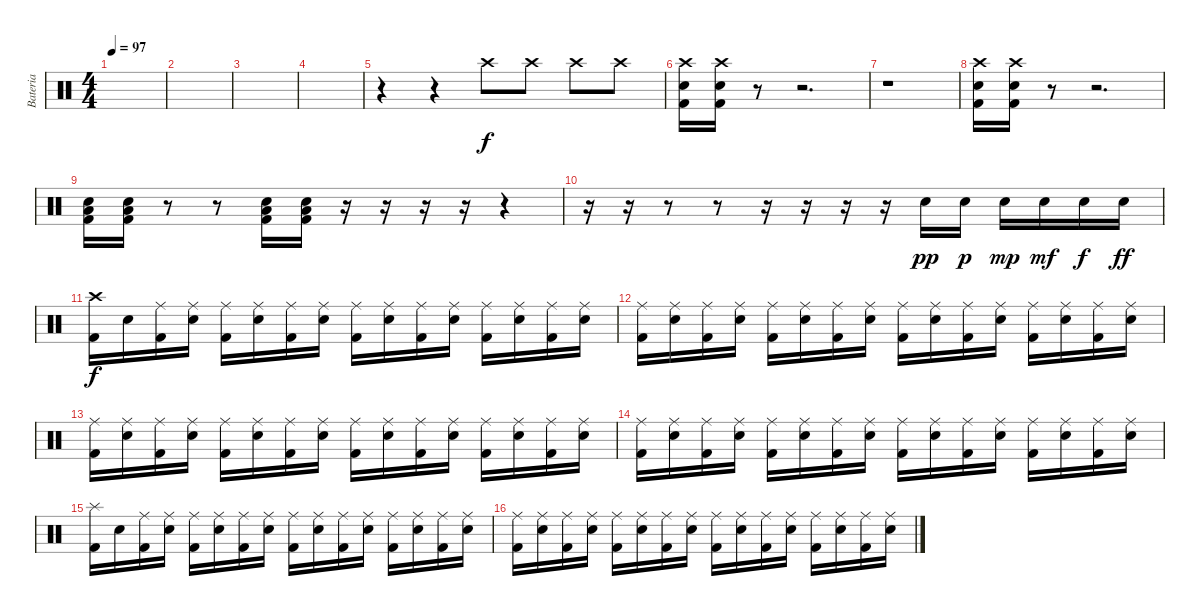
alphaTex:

\track ("Bateria" "Bateria") {instrument percussion}
\staff {score}
\articulation defaults
\ts (4 4)
\tempo 97
\clef neutral
\ks c
|
|
|
|
r.4 r.4 "Crash high (hit)".8 "Crash high (hit)".8 "Crash high (hit)".8 "Crash high (hit)".8 |
("Crash high (hit)" "Electric Snare (hit)" "Kick (hit) 2").16 ("Crash high (hit)" "Electric Snare (hit)" "Kick (hit) 2").16 r.8 r.2{d} |
r.1 |
("Crash high (hit)" "Electric Snare (hit)" "Kick (hit) 2").16 ("Crash high (hit)" "Electric Snare (hit)" "Kick (hit) 2").16 r.8 r.2{d} |
("Low Floor Tom (hit)" "Electric Snare (hit)" "Kick (hit) 2").16 ("Low Floor Tom (hit)" "Electric Snare (hit)" "Kick (hit) 2").16 r.8 r.8 ("Low Floor Tom (hit)" "Electric Snare (hit)" "Kick (hit) 2").16 ("Low Floor Tom (hit)" "Electric Snare (hit)" "Kick (hit) 2").16 r.16 r.16 r.16 r.16 r.4 |
r.16 r.16 r.8 r.8 r.16 r.16 r.16 r.16 "Electric Snare (hit)".16{dy pp} "Electric Snare (hit)".16{dy p} "Electric Snare (hit)".16{dy mp} "Electric Snare (hit)".16{dy mf} "Electric Snare (hit)".16{dy f} "Electric Snare (hit)".16{dy ff} |
("Crash high (hit)" "Kick (hit) 2").16{dy f} "Electric Snare (hit)".16 ("Ride (middle)" "Kick (hit) 2").16 ("Ride (middle)" "Electric Snare (hit)").16 ("Ride (middle)" "Kick (hit) 2").16 ("Ride (middle)" "Electric Snare (hit)").16 ("Ride (middle)" "Kick (hit) 2").16 ("Ride (middle)" "Electric Snare (hit)").16 ("Ride (middle)" "Kick (hit) 2").16 ("Ride (middle)" "Electric Snare (hit)").16 ("Ride (middle)" "Kick (hit) 2").16 ("Ride (middle)" "Electric Snare (hit)").16 ("Ride (middle)" "Kick (hit) 2").16 ("Ride (middle)" "Electric Snare (hit)").16 ("Ride (middle)" "Kick (hit) 2").16 ("Ride (middle)" "Electric Snare (hit)").16 |
("Ride (middle)" "Kick (hit) 2").16 ("Ride (middle)" "Electric Snare (hit)").16 ("Ride (middle)" "Kick (hit) 2").16 ("Ride (middle)" "Electric Snare (hit)").16 ("Ride (middle)" "Kick (hit) 2").16 ("Ride (middle)" "Electric Snare (hit)").16 ("Ride (middle)" "Kick (hit) 2").16 ("Ride (middle)" "Electric Snare (hit)").16 ("Ride (middle)" "Kick (hit) 2").16 ("Ride (middle)" "Electric Snare (hit)").16 ("Ride (middle)" "Kick (hit) 2").16 ("Ride (middle)" "Electric Snare (hit)").16 ("Ride (middle)" "Kick (hit) 2").16 ("Ride (middle)" "Electric Snare (hit)").16 ("Ride (middle)" "Kick (hit) 2").16 ("Ride (middle)" "Electric Snare (hit)").16 |
("Ride (middle)" "Kick (hit) 2").16 ("Ride (middle)" "Electric Snare (hit)").16 ("Ride (middle)" "Kick (hit) 2").16 ("Ride (middle)" "Electric Snare (hit)").16 ("Ride (middle)" "Kick (hit) 2").16 ("Ride (middle)" "Electric Snare (hit)").16 ("Ride (middle)" "Kick (hit) 2").16 ("Ride (middle)" "Electric Snare (hit)").16 ("Ride (middle)" "Kick (hit) 2").16 ("Ride (middle)" "Electric Snare (hit)").16 ("Ride (middle)" "Kick (hit) 2").16 ("Ride (middle)" "Electric Snare (hit)").16 ("Ride (middle)" "Kick (hit) 2").16 ("Ride (middle)" "Electric Snare (hit)").16 ("Ride (middle)" "Kick (hit) 2").16 ("Ride (middle)" "Electric Snare (hit)").16 |
("Ride (middle)" "Kick (hit) 2").16 ("Ride (middle)" "Electric Snare (hit)").16 ("Ride (middle)" "Kick (hit) 2").16 ("Ride (middle)" "Electric Snare (hit)").16 ("Ride (middle)" "Kick (hit) 2").16 ("Ride (middle)" "Electric Snare (hit)").16 ("Ride (middle)" "Kick (hit) 2").16 ("Ride (middle)" "Electric Snare (hit)").16 ("Ride (middle)" "Kick (hit) 2").16 ("Ride (middle)" "Electric Snare (hit)").16 ("Ride (middle)" "Kick (hit) 2").16 ("Ride (middle)" "Electric Snare (hit)").16 ("Ride (middle)" "Kick (hit) 2").16 ("Ride (middle)" "Electric Snare (hit)").16 ("Ride (middle)" "Kick (hit) 2").16 ("Ride (middle)" "Electric Snare (hit)").16 |
("Splash (hit)" "Kick (hit) 2").16 "Electric Snare (hit)".16 ("Ride (middle)" "Kick (hit) 2").16 ("Ride (middle)" "Electric Snare (hit)").16 ("Ride (middle)" "Kick (hit) 2").16 ("Ride (middle)" "Electric Snare (hit)").16 ("Ride (middle)" "Kick (hit) 2").16 ("Ride (middle)" "Electric Snare (hit)").16 ("Ride (middle)" "Kick (hit) 2").16 ("Ride (middle)" "Electric Snare (hit)").16 ("Ride (middle)" "Kick (hit) 2").16 ("Ride (middle)" "Electric Snare (hit)").16 ("Ride (middle)" "Kick (hit) 2").16 ("Ride (middle)" "Electric Snare (hit)").16 ("Ride (middle)" "Kick (hit) 2").16 ("Ride (middle)" "Electric Snare (hit)").16 |
("Ride (middle)" "Kick (hit) 2").16 ("Ride (middle)" "Electric Snare (hit)").16 ("Ride (middle)" "Kick (hit) 2").16 ("Ride (middle)" "Electric Snare (hit)").16 ("Ride (middle)" "Kick (hit) 2").16 ("Ride (middle)" "Electric Snare (hit)").16 ("Ride (middle)" "Kick (hit) 2").16 ("Ride (middle)" "Electric Snare (hit)").16 ("Ride (middle)" "Kick (hit) 2").16 ("Ride (middle)" "Electric Snare (hit)").16 ("Ride (middle)" "Kick (hit) 2").16 ("Ride (middle)" "Electric Snare (hit)").16 ("Ride (middle)" "Kick (hit) 2").16 ("Ride (middle)" "Electric Snare (hit)").16 ("Ride (middle)" "Kick (hit) 2").16 ("Ride (middle)" "Electric Snare (hit)").16
